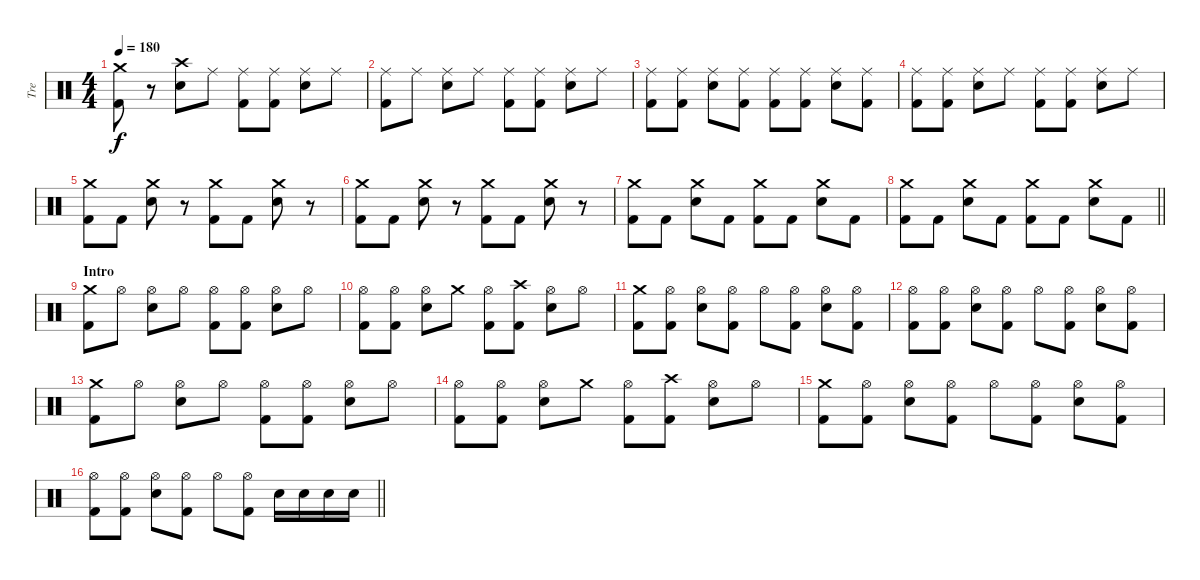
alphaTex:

\track ("Tre" "Tre") {instrument percussion}
\staff {score}
\articulation defaults
\ts (4 4)
\tempo 180
\clef neutral
\ks c
("Kick (hit) 2" "Crash medium (hit)").8{dy f} r.8 ("Snare (hit) 2" "Crash high (hit)").8 "Ride (middle)".8 ("Kick (hit) 2" "Ride (middle)").8 ("Kick (hit) 2" "Ride (middle)").8 ("Snare (hit) 2" "Ride (middle)").8 "Ride (middle)".8 |
("Kick (hit) 2" "Ride (middle)").8 "Ride (middle)".8 ("Snare (hit) 2" "Ride (middle)").8 "Ride (middle)".8 ("Kick (hit) 2" "Ride (middle)").8 ("Kick (hit) 2" "Ride (middle)").8 ("Snare (hit) 2" "Ride (middle)").8 "Ride (middle)".8 |
("Kick (hit) 2" "Ride (middle)").8 ("Kick (hit) 2" "Ride (middle)").8 ("Snare (hit) 2" "Ride (middle)").8 ("Kick (hit) 2" "Ride (middle)").8 ("Kick (hit) 2" "Ride (middle)").8 ("Kick (hit) 2" "Ride (middle)").8 ("Snare (hit) 2" "Ride (middle)").8 ("Kick (hit) 2" "Ride (middle)").8 |
("Kick (hit) 2" "Ride (middle)").8 ("Kick (hit) 2" "Ride (middle)").8 ("Snare (hit) 2" "Ride (middle)").8 "Ride (middle)".8 ("Kick (hit) 2" "Ride (middle)").8 ("Kick (hit) 2" "Ride (middle)").8 ("Snare (hit) 2" "Ride (middle)").8 "Ride (middle)".8 |
("Kick (hit) 2" "Crash medium (hit)").8 "Kick (hit) 2".8 ("Snare (hit) 2" "Crash medium (hit)").8 r.8 ("Kick (hit) 2" "Crash medium (hit)").8 "Kick (hit) 2".8 ("Snare (hit) 2" "Crash medium (hit)").8 r.8 |
("Kick (hit) 2" "Crash medium (hit)").8 "Kick (hit) 2".8 ("Snare (hit) 2" "Crash medium (hit)").8 r.8 ("Kick (hit) 2" "Crash medium (hit)").8 "Kick (hit) 2".8 ("Snare (hit) 2" "Crash medium (hit)").8 r.8 |
("Kick (hit) 2" "Crash medium (hit)").8 "Kick (hit) 2".8 ("Snare (hit) 2" "Crash medium (hit)").8 "Kick (hit) 2".8 ("Kick (hit) 2" "Crash medium (hit)").8 "Kick (hit) 2".8 ("Snare (hit) 2" "Crash medium (hit)").8 "Kick (hit) 2".8 |
\barLineRight lightlight
("Kick (hit) 2" "Crash medium (hit)").8 "Kick (hit) 2".8 ("Snare (hit) 2" "Crash medium (hit)").8 "Kick (hit) 2".8 ("Kick (hit) 2" "Crash medium (hit)").8 "Kick (hit) 2".8 ("Snare (hit) 2" "Crash medium (hit)").8 "Kick (hit) 2".8 |
\section ("" "Intro")
("Kick (hit) 2" "Crash medium (hit)").8 "Hi-Hat (open)".8 ("Snare (hit) 2" "Hi-Hat (open)").8 "Hi-Hat (open)".8 ("Kick (hit) 2" "Hi-Hat (open)").8 ("Kick (hit) 2" "Hi-Hat (open)").8 ("Snare (hit) 2" "Hi-Hat (open)").8 "Hi-Hat (open)".8 |
("Kick (hit) 2" "Hi-Hat (open)").8 ("Kick (hit) 2" "Hi-Hat (open)").8 ("Snare (hit) 2" "Hi-Hat (open)").8 "Crash medium (hit)".8 ("Kick (hit) 2" "Hi-Hat (open)").8 ("Kick (hit) 2" "Crash high (hit)").8 ("Snare (hit) 2" "Hi-Hat (open)").8 "Hi-Hat (open)".8 |
("Kick (hit) 2" "Crash medium (hit)").8 ("Kick (hit) 2" "Hi-Hat (open)").8 ("Snare (hit) 2" "Hi-Hat (open)").8 ("Kick (hit) 2" "Hi-Hat (open)").8 "Hi-Hat (open)".8 ("Kick (hit) 2" "Hi-Hat (open)").8 ("Snare (hit) 2" "Hi-Hat (open)").8 ("Kick (hit) 2" "Hi-Hat (open)").8 |
("Kick (hit) 2" "Hi-Hat (open)").8 ("Kick (hit) 2" "Hi-Hat (open)").8 ("Snare (hit) 2" "Hi-Hat (open)").8 ("Kick (hit) 2" "Hi-Hat (open)").8 "Hi-Hat (open)".8 ("Kick (hit) 2" "Hi-Hat (open)").8 ("Snare (hit) 2" "Hi-Hat (open)").8 ("Kick (hit) 2" "Hi-Hat (open)").8 |
("Kick (hit) 2" "Crash medium (hit)").8 "Hi-Hat (open)".8 ("Snare (hit) 2" "Hi-Hat (open)").8 "Hi-Hat (open)".8 ("Kick (hit) 2" "Hi-Hat (open)").8 ("Kick (hit) 2" "Hi-Hat (open)").8 ("Snare (hit) 2" "Hi-Hat (open)").8 "Hi-Hat (open)".8 |
("Kick (hit) 2" "Hi-Hat (open)").8 ("Kick (hit) 2" "Hi-Hat (open)").8 ("Snare (hit) 2" "Hi-Hat (open)").8 "Crash medium (hit)".8 ("Kick (hit) 2" "Hi-Hat (open)").8 ("Kick (hit) 2" "Crash high (hit)").8 ("Snare (hit) 2" "Hi-Hat (open)").8 "Hi-Hat (open)".8 |
("Kick (hit) 2" "Crash medium (hit)").8 ("Kick (hit) 2" "Hi-Hat (open)").8 ("Snare (hit) 2" "Hi-Hat (open)").8 ("Kick (hit) 2" "Hi-Hat (open)").8 "Hi-Hat (open)".8 ("Kick (hit) 2" "Hi-Hat (open)").8 ("Snare (hit) 2" "Hi-Hat (open)").8 ("Kick (hit) 2" "Hi-Hat (open)").8 |
\barLineRight lightlight
("Kick (hit) 2" "Hi-Hat (open)").8 ("Kick (hit) 2" "Hi-Hat (open)").8 ("Snare (hit) 2" "Hi-Hat (open)").8 ("Kick (hit) 2" "Hi-Hat (open)").8 "Hi-Hat (open)".8 ("Kick (hit) 2" "Hi-Hat (open)").8 "Snare (hit) 2".16 "Snare (hit) 2".16 "Snare (hit) 2".16 "Snare (hit) 2".16
